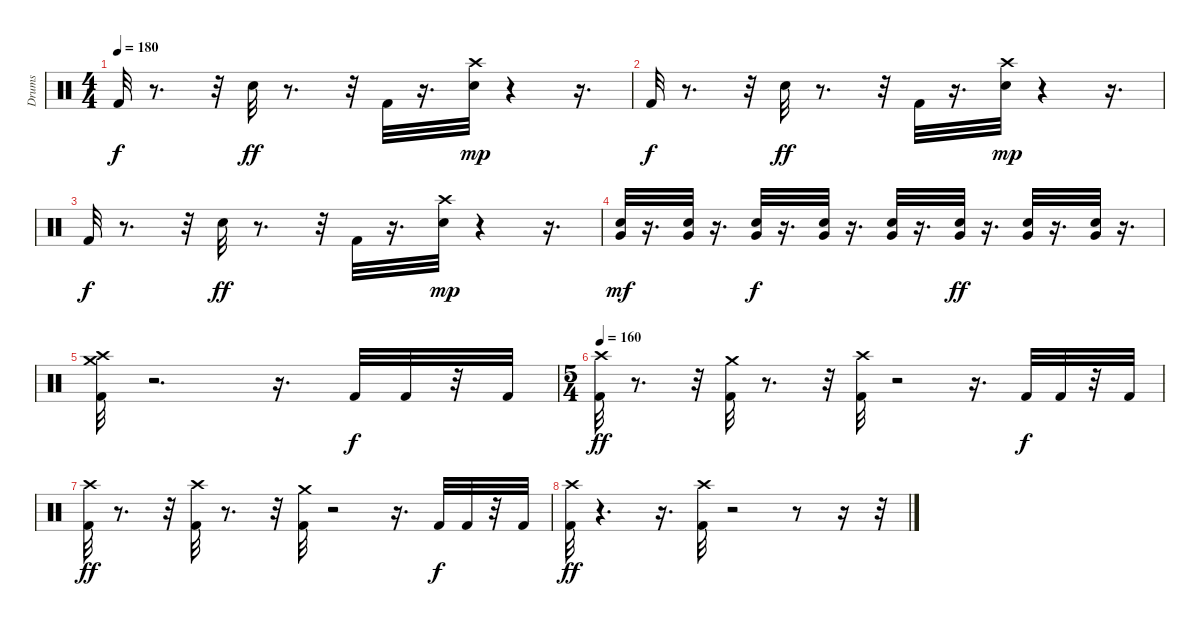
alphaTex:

\track ("Drums" "Drums") {instrument percussion}
\staff {score}
\articulation defaults
\ts (4 4)
\tempo 180
\clef neutral
\ks c "Kick (hit) 2".32{dy f}
r.8{d} r.32 "Snare (hit) 2".32{dy ff} r.8{d} r.32 "Kick (hit) 2".32 r.16{d} ("Snare (hit) 2" "Crash high (hit)").32{dy mp} r.4 r.16{d} |
"Kick (hit) 2".32{dy f} r.8{d} r.32 "Snare (hit) 2".32{dy ff} r.8{d} r.32 "Kick (hit) 2".32 r.16{d} ("Snare (hit) 2" "Crash high (hit)").32{dy mp} r.4 r.16{d} |
"Kick (hit) 2".32{dy f} r.8{d} r.32 "Snare (hit) 2".32{dy ff} r.8{d} r.32 "Kick (hit) 2".32 r.16{d} ("Snare (hit) 2" "Crash high (hit)").32{dy mp} r.4 r.16{d} |
("Very Low Tom (hit)" "Snare (hit) 2").32{dy mf} r.16{d} ("Very Low Tom (hit)" "Snare (hit) 2").32 r.16{d} ("Very Low Tom (hit)" "Snare (hit) 2").32{dy f} r.16{d} ("Very Low Tom (hit)" "Snare (hit) 2").32 r.16{d} ("Very Low Tom (hit)" "Snare (hit) 2").32 r.16{d} ("Very Low Tom (hit)" "Snare (hit) 2").32{dy ff} r.16{d} ("Very Low Tom (hit)" "Snare (hit) 2").32 r.16{d} ("Very Low Tom (hit)" "Snare (hit) 2").32 r.16{d} |
("Crash medium (hit)" "Crash high (hit)" "Kick (hit) 2").32 r.2{d} r.16{d} "Kick (hit) 2".32{dy f} "Kick (hit) 2".32 r.32 "Kick (hit) 2".32 |
\ts (5 4)
\tempo 160
("Crash high (hit)" "Kick (hit) 2").32{dy ff} r.8{d} r.32 ("Crash medium (hit)" "Kick (hit) 2").32 r.8{d} r.32 ("Crash high (hit)" "Kick (hit) 2").32 r.2 r.16{d} "Kick (hit) 2".32{dy f} "Kick (hit) 2".32 r.32 "Kick (hit) 2".32 |
("Crash high (hit)" "Kick (hit) 2").32{dy ff} r.8{d} r.32 ("Crash high (hit)" "Kick (hit) 2").32 r.8{d} r.32 ("Crash medium (hit)" "Kick (hit) 2").32 r.2 r.16{d} "Kick (hit) 2".32{dy f} "Kick (hit) 2".32 r.32 "Kick (hit) 2".32 |
("Crash high (hit)" "Kick (hit) 2").32{dy ff} r.4{d} r.16{d} ("Crash high (hit)" "Kick (hit) 2").32 r.2 r.8 r.16 r.32
